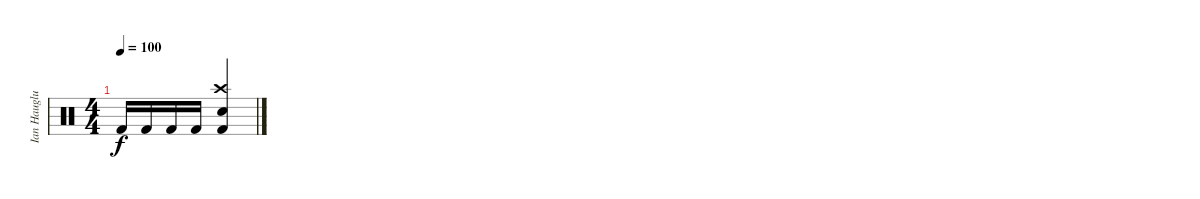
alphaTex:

\track ("Ian Hauglund" "Ian Hauglu") {instrument percussion}
\staff {score}
\articulation defaults
\ts (4 4)
\tempo 100
\clef neutral
\ks c "Kick (hit) 2".16{dy f} "Kick (hit) 2".16 "Kick (hit) 2".16 "Kick (hit) 2".16
("Crash high (hit)" "Kick (hit) 2" "Electric Snare (hit)").4
